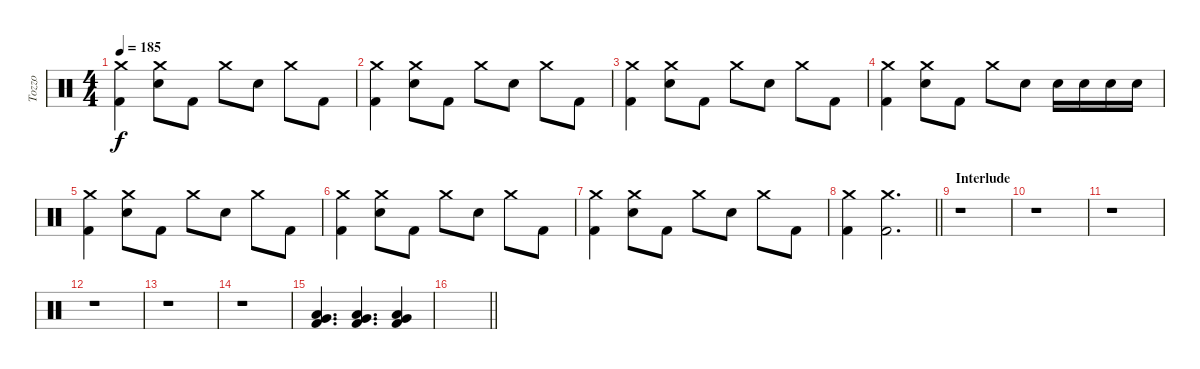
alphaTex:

\track ("Tozzo" "Tozzo") {instrument percussion}
\staff {score}
\articulation defaults
\ts (4 4)
\tempo 185
\clef neutral
\ks c
("Crash medium (hit)" "Kick (hit) 2").4{dy f} ("Crash medium (hit)" "Electric Snare (hit)").8 "Kick (hit) 2".8 "Crash medium (hit)".8 "Electric Snare (hit)".8 "Crash medium (hit)".8 "Kick (hit) 2".8 |
("Crash medium (hit)" "Kick (hit) 2").4 ("Crash medium (hit)" "Electric Snare (hit)").8 "Kick (hit) 2".8 "Crash medium (hit)".8 "Electric Snare (hit)".8 "Crash medium (hit)".8 "Kick (hit) 2".8 |
("Crash medium (hit)" "Kick (hit) 2").4 ("Crash medium (hit)" "Electric Snare (hit)").8 "Kick (hit) 2".8 "Crash medium (hit)".8 "Electric Snare (hit)".8 "Crash medium (hit)".8 "Kick (hit) 2".8 |
("Crash medium (hit)" "Kick (hit) 2").4 ("Crash medium (hit)" "Electric Snare (hit)").8 "Kick (hit) 2".8 "Crash medium (hit)".8 "Electric Snare (hit)".8 "Electric Snare (hit)".16 "Electric Snare (hit)".16 "Electric Snare (hit)".16 "Electric Snare (hit)".16 |
("Crash medium (hit)" "Kick (hit) 2").4 ("Crash medium (hit)" "Electric Snare (hit)").8 "Kick (hit) 2".8 "Crash medium (hit)".8 "Electric Snare (hit)".8 "Crash medium (hit)".8 "Kick (hit) 2".8 |
("Crash medium (hit)" "Kick (hit) 2").4 ("Crash medium (hit)" "Electric Snare (hit)").8 "Kick (hit) 2".8 "Crash medium (hit)".8 "Electric Snare (hit)".8 "Crash medium (hit)".8 "Kick (hit) 2".8 |
("Crash medium (hit)" "Kick (hit) 2").4 ("Crash medium (hit)" "Electric Snare (hit)").8 "Kick (hit) 2".8 "Crash medium (hit)".8 "Electric Snare (hit)".8 "Crash medium (hit)".8 "Kick (hit) 2".8 |
\barLineRight lightlight
("Crash medium (hit)" "Kick (hit) 2").4 ("Crash medium (hit)" "Kick (hit) 2").2{d} |
\section ("" "Interlude")
r.1 |
r.1 |
r.1 |
r.1 |
r.1 |
r.1 |
("Very Low Tom (hit)" "Low Floor Tom (hit)" "Kick (hit) 2").4{d} ("Very Low Tom (hit)" "Low Floor Tom (hit)" "Kick (hit) 2").4{d} ("Very Low Tom (hit)" "Low Floor Tom (hit)" "Kick (hit) 2").4 |
\barLineRight lightlight
